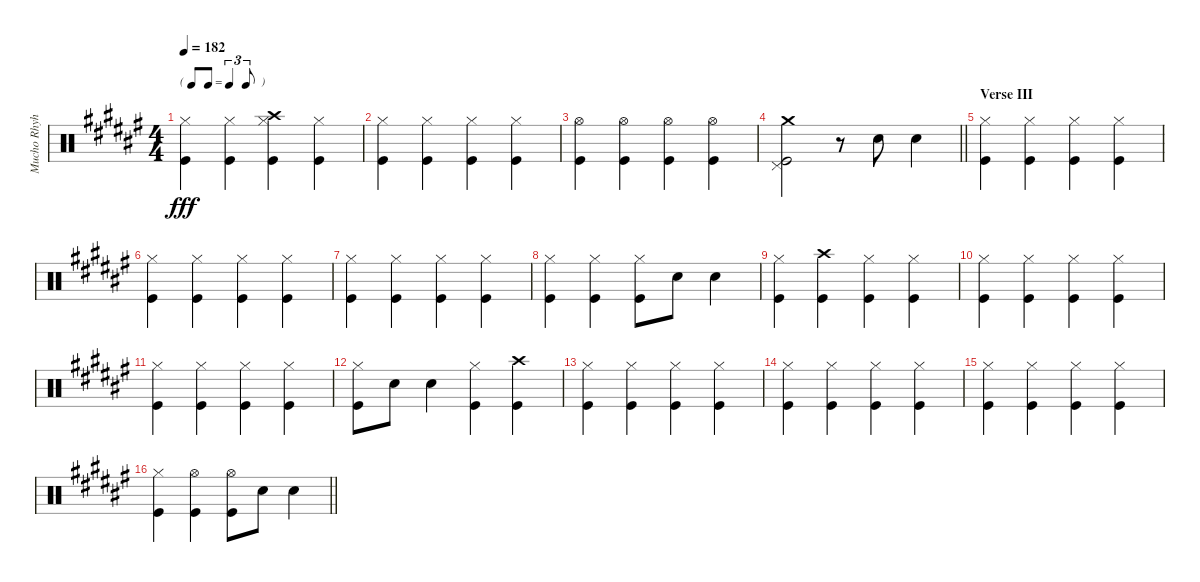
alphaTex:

\track ("Mucho Rhyhtm" "Mucho Rhyh") {instrument percussion}
\staff {score}
\articulation defaults
\ts (4 4)
\tf triplet8th
\tempo 182
\clef neutral
\ks f#
("Hi-Hat (closed)" "Kick (hit)").4{dy fff} ("Hi-Hat (closed)" "Kick (hit)").4 ("Hi-Hat (closed)" "Crash high (hit)" "Kick (hit)").4 ("Hi-Hat (closed)" "Kick (hit)").4 |
("Hi-Hat (closed)" "Kick (hit)").4 ("Hi-Hat (closed)" "Kick (hit)").4 ("Hi-Hat (closed)" "Kick (hit)").4 ("Hi-Hat (closed)" "Kick (hit)").4 |
("Hi-Hat (open)" "Kick (hit)").4 ("Hi-Hat (open)" "Kick (hit)").4 ("Hi-Hat (open)" "Kick (hit)").4 ("Hi-Hat (open)" "Kick (hit)").4 |
\barLineRight lightlight
("Pedal Hi-Hat (hit)" "Crash medium (hit)" "Kick (hit)").2 r.8 "Snare (hit) 2".8 "Snare (hit) 2".4 |
\section ("" "Verse III")
("Hi-Hat (closed)" "Kick (hit)").4 ("Hi-Hat (closed)" "Kick (hit)").4 ("Hi-Hat (closed)" "Kick (hit)").4 ("Hi-Hat (closed)" "Kick (hit)").4 |
("Hi-Hat (closed)" "Kick (hit)").4 ("Hi-Hat (closed)" "Kick (hit)").4 ("Hi-Hat (closed)" "Kick (hit)").4 ("Hi-Hat (closed)" "Kick (hit)").4 |
("Hi-Hat (closed)" "Kick (hit)").4 ("Hi-Hat (closed)" "Kick (hit)").4 ("Hi-Hat (closed)" "Kick (hit)").4 ("Hi-Hat (closed)" "Kick (hit)").4 |
("Hi-Hat (closed)" "Kick (hit)").4 ("Hi-Hat (closed)" "Kick (hit)").4 ("Hi-Hat (closed)" "Kick (hit)").8 "Snare (hit) 2".8 "Snare (hit) 2".4 |
("Hi-Hat (closed)" "Kick (hit)").4 ("Crash high (hit)" "Kick (hit)").4 ("Hi-Hat (closed)" "Kick (hit)").4 ("Hi-Hat (closed)" "Kick (hit)").4 |
("Hi-Hat (closed)" "Kick (hit)").4 ("Hi-Hat (closed)" "Kick (hit)").4 ("Hi-Hat (closed)" "Kick (hit)").4 ("Hi-Hat (closed)" "Kick (hit)").4 |
("Hi-Hat (closed)" "Kick (hit)").4 ("Hi-Hat (closed)" "Kick (hit)").4 ("Hi-Hat (closed)" "Kick (hit)").4 ("Hi-Hat (closed)" "Kick (hit)").4 |
("Hi-Hat (closed)" "Kick (hit)").8 "Snare (hit) 2".8 "Snare (hit) 2".4 ("Hi-Hat (closed)" "Kick (hit)").4 ("Crash high (hit)" "Kick (hit)").4 |
("Hi-Hat (closed)" "Kick (hit)").4 ("Hi-Hat (closed)" "Kick (hit)").4 ("Hi-Hat (closed)" "Kick (hit)").4 ("Hi-Hat (closed)" "Kick (hit)").4 |
("Hi-Hat (closed)" "Kick (hit)").4 ("Hi-Hat (closed)" "Kick (hit)").4 ("Hi-Hat (closed)" "Kick (hit)").4 ("Hi-Hat (closed)" "Kick (hit)").4 |
("Hi-Hat (closed)" "Kick (hit)").4 ("Hi-Hat (closed)" "Kick (hit)").4 ("Hi-Hat (closed)" "Kick (hit)").4 ("Hi-Hat (closed)" "Kick (hit)").4 |
\barLineRight lightlight
("Hi-Hat (closed)" "Kick (hit)").4 ("Hi-Hat (open)" "Kick (hit)").4 ("Hi-Hat (open)" "Kick (hit)").8 "Snare (hit) 2".8 "Snare (hit) 2".4
